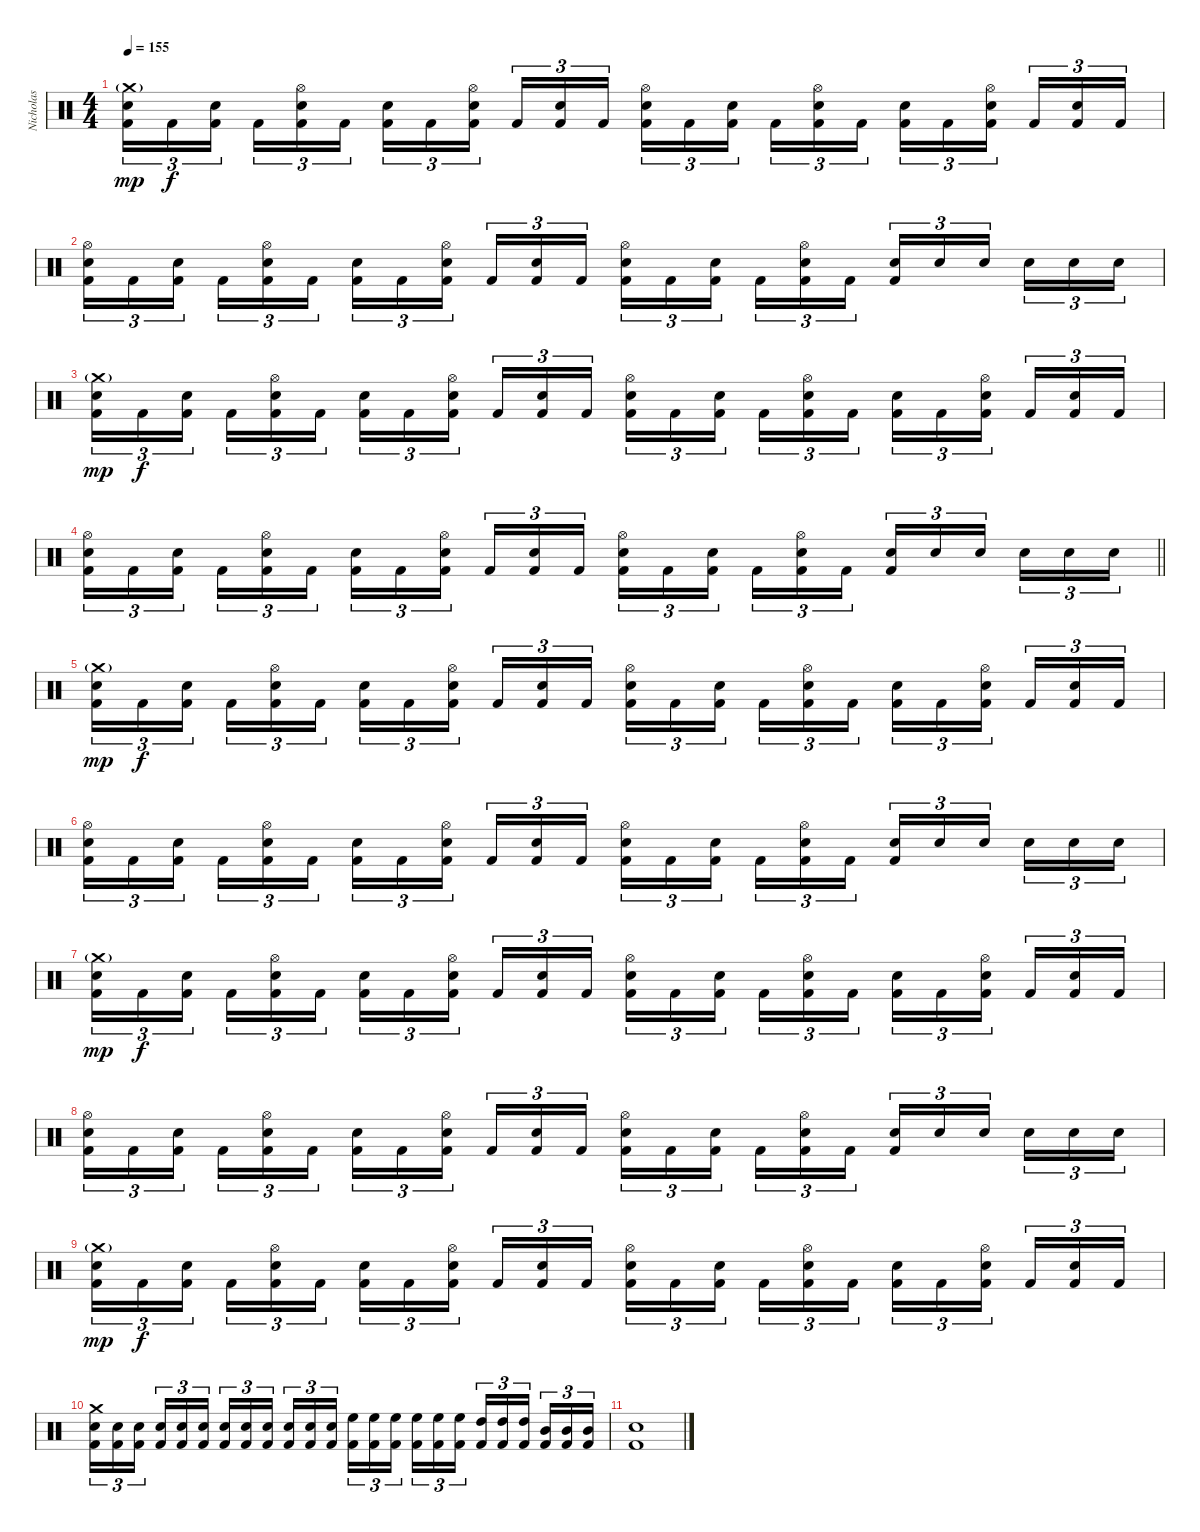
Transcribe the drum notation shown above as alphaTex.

\track ("Nicholas" "Nicholas") {instrument percussion}
\staff {score}
\articulation defaults
\ts (4 4)
\tempo 155
\clef neutral
\ks c
("Crash medium (hit)"{g} "Snare (hit) 2" "Kick (hit) 2").16{tu (3 2) dy mp} "Kick (hit) 2".16{tu (3 2) dy f} ("Snare (hit) 2" "Kick (hit) 2").16{tu (3 2) beam splitsecondary} "Kick (hit) 2".16{tu (3 2)} ("Hi-Hat (open)" "Snare (hit) 2" "Kick (hit) 2").16{tu (3 2)} "Kick (hit) 2".16{tu (3 2)} ("Snare (hit) 2" "Kick (hit) 2").16{tu (3 2)} "Kick (hit) 2".16{tu (3 2)} ("Hi-Hat (open)" "Snare (hit) 2" "Kick (hit) 2").16{tu (3 2) beam splitsecondary} "Kick (hit) 2".16{tu (3 2)} ("Snare (hit) 2" "Kick (hit) 2").16{tu (3 2)} "Kick (hit) 2".16{tu (3 2)} ("Hi-Hat (open)" "Snare (hit) 2" "Kick (hit) 2").16{tu (3 2)} "Kick (hit) 2".16{tu (3 2)} ("Snare (hit) 2" "Kick (hit) 2").16{tu (3 2) beam splitsecondary} "Kick (hit) 2".16{tu (3 2)} ("Hi-Hat (open)" "Snare (hit) 2" "Kick (hit) 2").16{tu (3 2)} "Kick (hit) 2".16{tu (3 2)} ("Snare (hit) 2" "Kick (hit) 2").16{tu (3 2)} "Kick (hit) 2".16{tu (3 2)} ("Hi-Hat (open)" "Snare (hit) 2" "Kick (hit) 2").16{tu (3 2) beam splitsecondary} "Kick (hit) 2".16{tu (3 2)} ("Snare (hit) 2" "Kick (hit) 2").16{tu (3 2)} "Kick (hit) 2".16{tu (3 2)} |
("Hi-Hat (open)" "Snare (hit) 2" "Kick (hit) 2").16{tu (3 2)} "Kick (hit) 2".16{tu (3 2)} ("Snare (hit) 2" "Kick (hit) 2").16{tu (3 2) beam splitsecondary} "Kick (hit) 2".16{tu (3 2)} ("Hi-Hat (open)" "Snare (hit) 2" "Kick (hit) 2").16{tu (3 2)} "Kick (hit) 2".16{tu (3 2)} ("Snare (hit) 2" "Kick (hit) 2").16{tu (3 2)} "Kick (hit) 2".16{tu (3 2)} ("Hi-Hat (open)" "Snare (hit) 2" "Kick (hit) 2").16{tu (3 2) beam splitsecondary} "Kick (hit) 2".16{tu (3 2)} ("Snare (hit) 2" "Kick (hit) 2").16{tu (3 2)} "Kick (hit) 2".16{tu (3 2)} ("Hi-Hat (open)" "Snare (hit) 2" "Kick (hit) 2").16{tu (3 2)} "Kick (hit) 2".16{tu (3 2)} ("Snare (hit) 2" "Kick (hit) 2").16{tu (3 2) beam splitsecondary} "Kick (hit) 2".16{tu (3 2)} ("Hi-Hat (open)" "Snare (hit) 2" "Kick (hit) 2").16{tu (3 2)} "Kick (hit) 2".16{tu (3 2)} ("Snare (hit) 2" "Kick (hit) 2").16{tu (3 2)} "Snare (hit) 2".16{tu (3 2)} "Snare (hit) 2".16{tu (3 2) beam splitsecondary} "Snare (hit) 2".16{tu (3 2)} "Snare (hit) 2".16{tu (3 2)} "Snare (hit) 2".16{tu (3 2)} |
("Crash medium (hit)"{g} "Snare (hit) 2" "Kick (hit) 2").16{tu (3 2) dy mp} "Kick (hit) 2".16{tu (3 2) dy f} ("Snare (hit) 2" "Kick (hit) 2").16{tu (3 2) beam splitsecondary} "Kick (hit) 2".16{tu (3 2)} ("Hi-Hat (open)" "Snare (hit) 2" "Kick (hit) 2").16{tu (3 2)} "Kick (hit) 2".16{tu (3 2)} ("Snare (hit) 2" "Kick (hit) 2").16{tu (3 2)} "Kick (hit) 2".16{tu (3 2)} ("Hi-Hat (open)" "Snare (hit) 2" "Kick (hit) 2").16{tu (3 2) beam splitsecondary} "Kick (hit) 2".16{tu (3 2)} ("Snare (hit) 2" "Kick (hit) 2").16{tu (3 2)} "Kick (hit) 2".16{tu (3 2)} ("Hi-Hat (open)" "Snare (hit) 2" "Kick (hit) 2").16{tu (3 2)} "Kick (hit) 2".16{tu (3 2)} ("Snare (hit) 2" "Kick (hit) 2").16{tu (3 2) beam splitsecondary} "Kick (hit) 2".16{tu (3 2)} ("Hi-Hat (open)" "Snare (hit) 2" "Kick (hit) 2").16{tu (3 2)} "Kick (hit) 2".16{tu (3 2)} ("Snare (hit) 2" "Kick (hit) 2").16{tu (3 2)} "Kick (hit) 2".16{tu (3 2)} ("Hi-Hat (open)" "Snare (hit) 2" "Kick (hit) 2").16{tu (3 2) beam splitsecondary} "Kick (hit) 2".16{tu (3 2)} ("Snare (hit) 2" "Kick (hit) 2").16{tu (3 2)} "Kick (hit) 2".16{tu (3 2)} |
\barLineRight lightlight
("Hi-Hat (open)" "Snare (hit) 2" "Kick (hit) 2").16{tu (3 2)} "Kick (hit) 2".16{tu (3 2)} ("Snare (hit) 2" "Kick (hit) 2").16{tu (3 2) beam splitsecondary} "Kick (hit) 2".16{tu (3 2)} ("Hi-Hat (open)" "Snare (hit) 2" "Kick (hit) 2").16{tu (3 2)} "Kick (hit) 2".16{tu (3 2)} ("Snare (hit) 2" "Kick (hit) 2").16{tu (3 2)} "Kick (hit) 2".16{tu (3 2)} ("Hi-Hat (open)" "Snare (hit) 2" "Kick (hit) 2").16{tu (3 2) beam splitsecondary} "Kick (hit) 2".16{tu (3 2)} ("Snare (hit) 2" "Kick (hit) 2").16{tu (3 2)} "Kick (hit) 2".16{tu (3 2)} ("Hi-Hat (open)" "Snare (hit) 2" "Kick (hit) 2").16{tu (3 2)} "Kick (hit) 2".16{tu (3 2)} ("Snare (hit) 2" "Kick (hit) 2").16{tu (3 2) beam splitsecondary} "Kick (hit) 2".16{tu (3 2)} ("Hi-Hat (open)" "Snare (hit) 2" "Kick (hit) 2").16{tu (3 2)} "Kick (hit) 2".16{tu (3 2)} ("Snare (hit) 2" "Kick (hit) 2").16{tu (3 2)} "Snare (hit) 2".16{tu (3 2)} "Snare (hit) 2".16{tu (3 2) beam splitsecondary} "Snare (hit) 2".16{tu (3 2)} "Snare (hit) 2".16{tu (3 2)} "Snare (hit) 2".16{tu (3 2)} |
("Crash medium (hit)"{g} "Snare (hit) 2" "Kick (hit) 2").16{tu (3 2) dy mp} "Kick (hit) 2".16{tu (3 2) dy f} ("Snare (hit) 2" "Kick (hit) 2").16{tu (3 2) beam splitsecondary} "Kick (hit) 2".16{tu (3 2)} ("Hi-Hat (open)" "Snare (hit) 2" "Kick (hit) 2").16{tu (3 2)} "Kick (hit) 2".16{tu (3 2)} ("Snare (hit) 2" "Kick (hit) 2").16{tu (3 2)} "Kick (hit) 2".16{tu (3 2)} ("Hi-Hat (open)" "Snare (hit) 2" "Kick (hit) 2").16{tu (3 2) beam splitsecondary} "Kick (hit) 2".16{tu (3 2)} ("Snare (hit) 2" "Kick (hit) 2").16{tu (3 2)} "Kick (hit) 2".16{tu (3 2)} ("Hi-Hat (open)" "Snare (hit) 2" "Kick (hit) 2").16{tu (3 2)} "Kick (hit) 2".16{tu (3 2)} ("Snare (hit) 2" "Kick (hit) 2").16{tu (3 2) beam splitsecondary} "Kick (hit) 2".16{tu (3 2)} ("Hi-Hat (open)" "Snare (hit) 2" "Kick (hit) 2").16{tu (3 2)} "Kick (hit) 2".16{tu (3 2)} ("Snare (hit) 2" "Kick (hit) 2").16{tu (3 2)} "Kick (hit) 2".16{tu (3 2)} ("Hi-Hat (open)" "Snare (hit) 2" "Kick (hit) 2").16{tu (3 2) beam splitsecondary} "Kick (hit) 2".16{tu (3 2)} ("Snare (hit) 2" "Kick (hit) 2").16{tu (3 2)} "Kick (hit) 2".16{tu (3 2)} |
("Hi-Hat (open)" "Snare (hit) 2" "Kick (hit) 2").16{tu (3 2)} "Kick (hit) 2".16{tu (3 2)} ("Snare (hit) 2" "Kick (hit) 2").16{tu (3 2) beam splitsecondary} "Kick (hit) 2".16{tu (3 2)} ("Hi-Hat (open)" "Snare (hit) 2" "Kick (hit) 2").16{tu (3 2)} "Kick (hit) 2".16{tu (3 2)} ("Snare (hit) 2" "Kick (hit) 2").16{tu (3 2)} "Kick (hit) 2".16{tu (3 2)} ("Hi-Hat (open)" "Snare (hit) 2" "Kick (hit) 2").16{tu (3 2) beam splitsecondary} "Kick (hit) 2".16{tu (3 2)} ("Snare (hit) 2" "Kick (hit) 2").16{tu (3 2)} "Kick (hit) 2".16{tu (3 2)} ("Hi-Hat (open)" "Snare (hit) 2" "Kick (hit) 2").16{tu (3 2)} "Kick (hit) 2".16{tu (3 2)} ("Snare (hit) 2" "Kick (hit) 2").16{tu (3 2) beam splitsecondary} "Kick (hit) 2".16{tu (3 2)} ("Hi-Hat (open)" "Snare (hit) 2" "Kick (hit) 2").16{tu (3 2)} "Kick (hit) 2".16{tu (3 2)} ("Snare (hit) 2" "Kick (hit) 2").16{tu (3 2)} "Snare (hit) 2".16{tu (3 2)} "Snare (hit) 2".16{tu (3 2) beam splitsecondary} "Snare (hit) 2".16{tu (3 2)} "Snare (hit) 2".16{tu (3 2)} "Snare (hit) 2".16{tu (3 2)} |
("Crash medium (hit)"{g} "Snare (hit) 2" "Kick (hit) 2").16{tu (3 2) dy mp} "Kick (hit) 2".16{tu (3 2) dy f} ("Snare (hit) 2" "Kick (hit) 2").16{tu (3 2) beam splitsecondary} "Kick (hit) 2".16{tu (3 2)} ("Hi-Hat (open)" "Snare (hit) 2" "Kick (hit) 2").16{tu (3 2)} "Kick (hit) 2".16{tu (3 2)} ("Snare (hit) 2" "Kick (hit) 2").16{tu (3 2)} "Kick (hit) 2".16{tu (3 2)} ("Hi-Hat (open)" "Snare (hit) 2" "Kick (hit) 2").16{tu (3 2) beam splitsecondary} "Kick (hit) 2".16{tu (3 2)} ("Snare (hit) 2" "Kick (hit) 2").16{tu (3 2)} "Kick (hit) 2".16{tu (3 2)} ("Hi-Hat (open)" "Snare (hit) 2" "Kick (hit) 2").16{tu (3 2)} "Kick (hit) 2".16{tu (3 2)} ("Snare (hit) 2" "Kick (hit) 2").16{tu (3 2) beam splitsecondary} "Kick (hit) 2".16{tu (3 2)} ("Hi-Hat (open)" "Snare (hit) 2" "Kick (hit) 2").16{tu (3 2)} "Kick (hit) 2".16{tu (3 2)} ("Snare (hit) 2" "Kick (hit) 2").16{tu (3 2)} "Kick (hit) 2".16{tu (3 2)} ("Hi-Hat (open)" "Snare (hit) 2" "Kick (hit) 2").16{tu (3 2) beam splitsecondary} "Kick (hit) 2".16{tu (3 2)} ("Snare (hit) 2" "Kick (hit) 2").16{tu (3 2)} "Kick (hit) 2".16{tu (3 2)} |
("Hi-Hat (open)" "Snare (hit) 2" "Kick (hit) 2").16{tu (3 2)} "Kick (hit) 2".16{tu (3 2)} ("Snare (hit) 2" "Kick (hit) 2").16{tu (3 2) beam splitsecondary} "Kick (hit) 2".16{tu (3 2)} ("Hi-Hat (open)" "Snare (hit) 2" "Kick (hit) 2").16{tu (3 2)} "Kick (hit) 2".16{tu (3 2)} ("Snare (hit) 2" "Kick (hit) 2").16{tu (3 2)} "Kick (hit) 2".16{tu (3 2)} ("Hi-Hat (open)" "Snare (hit) 2" "Kick (hit) 2").16{tu (3 2) beam splitsecondary} "Kick (hit) 2".16{tu (3 2)} ("Snare (hit) 2" "Kick (hit) 2").16{tu (3 2)} "Kick (hit) 2".16{tu (3 2)} ("Hi-Hat (open)" "Snare (hit) 2" "Kick (hit) 2").16{tu (3 2)} "Kick (hit) 2".16{tu (3 2)} ("Snare (hit) 2" "Kick (hit) 2").16{tu (3 2) beam splitsecondary} "Kick (hit) 2".16{tu (3 2)} ("Hi-Hat (open)" "Snare (hit) 2" "Kick (hit) 2").16{tu (3 2)} "Kick (hit) 2".16{tu (3 2)} ("Snare (hit) 2" "Kick (hit) 2").16{tu (3 2)} "Snare (hit) 2".16{tu (3 2)} "Snare (hit) 2".16{tu (3 2) beam splitsecondary} "Snare (hit) 2".16{tu (3 2)} "Snare (hit) 2".16{tu (3 2)} "Snare (hit) 2".16{tu (3 2)} |
("Crash medium (hit)"{g} "Snare (hit) 2" "Kick (hit) 2").16{tu (3 2) dy mp} "Kick (hit) 2".16{tu (3 2) dy f} ("Snare (hit) 2" "Kick (hit) 2").16{tu (3 2) beam splitsecondary} "Kick (hit) 2".16{tu (3 2)} ("Hi-Hat (open)" "Snare (hit) 2" "Kick (hit) 2").16{tu (3 2)} "Kick (hit) 2".16{tu (3 2)} ("Snare (hit) 2" "Kick (hit) 2").16{tu (3 2)} "Kick (hit) 2".16{tu (3 2)} ("Hi-Hat (open)" "Snare (hit) 2" "Kick (hit) 2").16{tu (3 2) beam splitsecondary} "Kick (hit) 2".16{tu (3 2)} ("Snare (hit) 2" "Kick (hit) 2").16{tu (3 2)} "Kick (hit) 2".16{tu (3 2)} ("Hi-Hat (open)" "Snare (hit) 2" "Kick (hit) 2").16{tu (3 2)} "Kick (hit) 2".16{tu (3 2)} ("Snare (hit) 2" "Kick (hit) 2").16{tu (3 2) beam splitsecondary} "Kick (hit) 2".16{tu (3 2)} ("Hi-Hat (open)" "Snare (hit) 2" "Kick (hit) 2").16{tu (3 2)} "Kick (hit) 2".16{tu (3 2)} ("Snare (hit) 2" "Kick (hit) 2").16{tu (3 2)} "Kick (hit) 2".16{tu (3 2)} ("Hi-Hat (open)" "Snare (hit) 2" "Kick (hit) 2").16{tu (3 2) beam splitsecondary} "Kick (hit) 2".16{tu (3 2)} ("Snare (hit) 2" "Kick (hit) 2").16{tu (3 2)} "Kick (hit) 2".16{tu (3 2)} |
("Crash medium (hit)" "Snare (hit) 2" "Kick (hit) 2").16{tu (3 2)} ("Snare (hit) 2" "Kick (hit) 2").16{tu (3 2)} ("Snare (hit) 2" "Kick (hit) 2").16{tu (3 2) beam splitsecondary} ("Snare (hit) 2" "Kick (hit) 2").16{tu (3 2)} ("Snare (hit) 2" "Kick (hit) 2").16{tu (3 2)} ("Snare (hit) 2" "Kick (hit) 2").16{tu (3 2)} ("Snare (hit) 2" "Kick (hit) 2").16{tu (3 2)} ("Snare (hit) 2" "Kick (hit) 2").16{tu (3 2)} ("Snare (hit) 2" "Kick (hit) 2").16{tu (3 2) beam splitsecondary} ("Snare (hit) 2" "Kick (hit) 2").16{tu (3 2)} ("Snare (hit) 2" "Kick (hit) 2").16{tu (3 2)} ("Snare (hit) 2" "Kick (hit) 2").16{tu (3 2)} ("High Floor Tom (hit)" "Kick (hit) 2").16{tu (3 2)} ("High Floor Tom (hit)" "Kick (hit) 2").16{tu (3 2)} ("High Floor Tom (hit)" "Kick (hit) 2").16{tu (3 2) beam splitsecondary} ("High Floor Tom (hit)" "Kick (hit) 2").16{tu (3 2)} ("High Floor Tom (hit)" "Kick (hit) 2").16{tu (3 2)} ("High Floor Tom (hit)" "Kick (hit) 2").16{tu (3 2)} ("High Tom (hit)" "Kick (hit) 2").16{tu (3 2)} ("High Tom (hit)" "Kick (hit) 2").16{tu (3 2)} ("High Tom (hit)" "Kick (hit) 2").16{tu (3 2) beam splitsecondary} ("Mid Tom (hit)" "Kick (hit) 2").16{tu (3 2)} ("Mid Tom (hit)" "Kick (hit) 2").16{tu (3 2)} ("Mid Tom (hit)" "Kick (hit) 2").16{tu (3 2)} |
("Snare (hit) 2" "Kick (hit) 2").1
